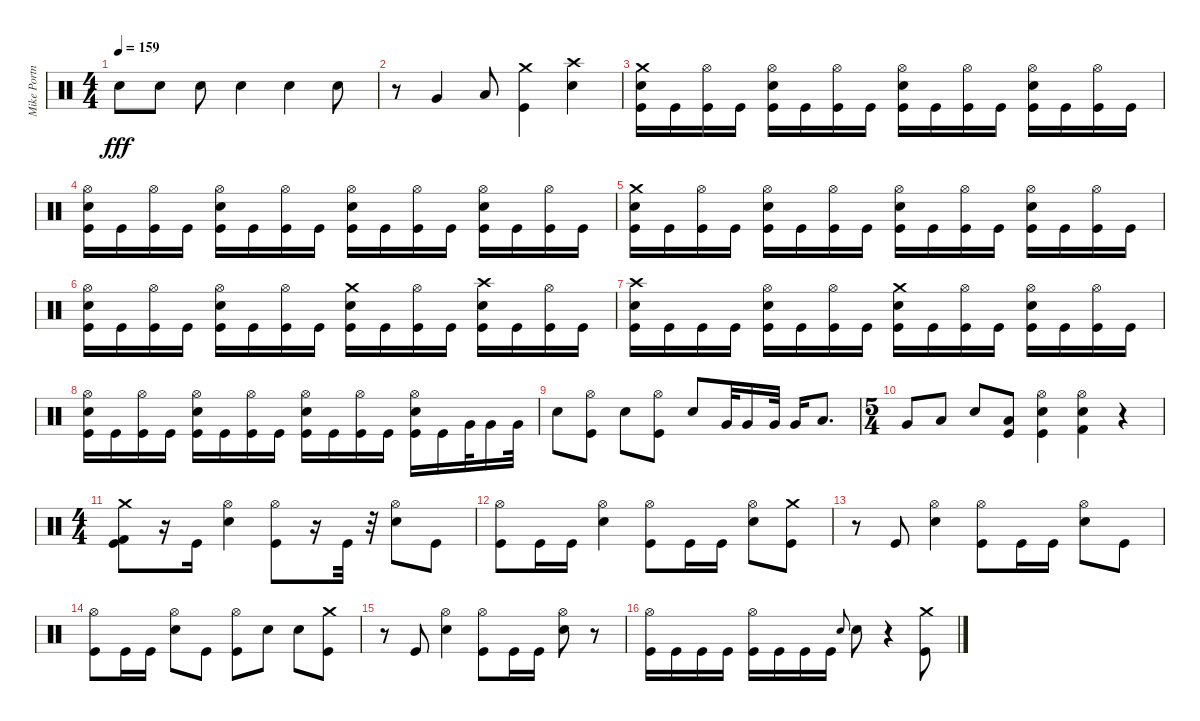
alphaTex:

\track ("Mike Portnoy" "Mike Portn") {instrument percussion}
\staff {score}
\articulation defaults
\ts (4 4)
\tempo 159
\clef neutral
\ks c "Electric Snare (hit)".8{dy fff} "Electric Snare (hit)".8 "Electric Snare (hit)".8 "Electric Snare (hit)".4 "Electric Snare (hit)".4 "Electric Snare (hit)".8
|
r.8 "Very Low Tom (hit)".4 "Low Floor Tom (hit)".8 ("Crash medium (hit)" "Kick (hit)").4 ("Crash high (hit)" "Electric Snare (hit)").4 |
("Crash medium (hit)" "Electric Snare (hit)" "Kick (hit)").16 "Kick (hit)".16 ("Hi-Hat (open)" "Kick (hit)").16 "Kick (hit)".16 ("Hi-Hat (open)" "Electric Snare (hit)" "Kick (hit)").16 "Kick (hit)".16 ("Hi-Hat (open)" "Kick (hit)").16 "Kick (hit)".16 ("Hi-Hat (open)" "Electric Snare (hit)" "Kick (hit)").16 "Kick (hit)".16 ("Hi-Hat (open)" "Kick (hit)").16 "Kick (hit)".16 ("Hi-Hat (open)" "Electric Snare (hit)" "Kick (hit)").16 "Kick (hit)".16 ("Hi-Hat (open)" "Kick (hit)").16 "Kick (hit)".16 |
("Hi-Hat (open)" "Electric Snare (hit)" "Kick (hit)").16 "Kick (hit)".16 ("Hi-Hat (open)" "Kick (hit)").16 "Kick (hit)".16 ("Hi-Hat (open)" "Electric Snare (hit)" "Kick (hit)").16 "Kick (hit)".16 ("Hi-Hat (open)" "Kick (hit)").16 "Kick (hit)".16 ("Hi-Hat (open)" "Electric Snare (hit)" "Kick (hit)").16 "Kick (hit)".16 ("Hi-Hat (open)" "Kick (hit)").16 "Kick (hit)".16 ("Hi-Hat (open)" "Electric Snare (hit)" "Kick (hit)").16 "Kick (hit)".16 ("Hi-Hat (open)" "Kick (hit)").16 "Kick (hit)".16 |
("Crash medium (hit)" "Electric Snare (hit)" "Kick (hit)").16 "Kick (hit)".16 ("Hi-Hat (open)" "Kick (hit)").16 "Kick (hit)".16 ("Hi-Hat (open)" "Electric Snare (hit)" "Kick (hit)").16 "Kick (hit)".16 ("Hi-Hat (open)" "Kick (hit)").16 "Kick (hit)".16 ("Hi-Hat (open)" "Electric Snare (hit)" "Kick (hit)").16 "Kick (hit)".16 ("Hi-Hat (open)" "Kick (hit)").16 "Kick (hit)".16 ("Hi-Hat (open)" "Electric Snare (hit)" "Kick (hit)").16 "Kick (hit)".16 ("Hi-Hat (open)" "Kick (hit)").16 "Kick (hit)".16 |
("Hi-Hat (open)" "Electric Snare (hit)" "Kick (hit)").16 "Kick (hit)".16 ("Hi-Hat (open)" "Kick (hit)").16 "Kick (hit)".16 ("Hi-Hat (open)" "Electric Snare (hit)" "Kick (hit)").16 "Kick (hit)".16 ("Hi-Hat (open)" "Kick (hit)").16 "Kick (hit)".16 ("Crash medium (hit)" "Electric Snare (hit)" "Kick (hit)").16 "Kick (hit)".16 ("Hi-Hat (open)" "Kick (hit)").16 "Kick (hit)".16 ("Crash high (hit)" "Electric Snare (hit)" "Kick (hit)").16 "Kick (hit)".16 ("Hi-Hat (open)" "Kick (hit)").16 "Kick (hit)".16 |
("Crash high (hit)" "Electric Snare (hit)" "Kick (hit)").16 "Kick (hit)".16 "Kick (hit)".16 "Kick (hit)".16 ("Hi-Hat (open)" "Electric Snare (hit)" "Kick (hit)").16 "Kick (hit)".16 ("Hi-Hat (open)" "Kick (hit)").16 "Kick (hit)".16 ("Crash medium (hit)" "Electric Snare (hit)" "Kick (hit)").16 "Kick (hit)".16 ("Hi-Hat (open)" "Kick (hit)").16 "Kick (hit)".16 ("Hi-Hat (open)" "Electric Snare (hit)" "Kick (hit)").16 "Kick (hit)".16 ("Hi-Hat (open)" "Kick (hit)").16 "Kick (hit)".16 |
("Hi-Hat (open)" "Electric Snare (hit)" "Kick (hit)").16 "Kick (hit)".16 ("Hi-Hat (open)" "Kick (hit)").16 "Kick (hit)".16 ("Hi-Hat (open)" "Electric Snare (hit)" "Kick (hit)").16 "Kick (hit)".16 ("Hi-Hat (open)" "Kick (hit)").16 "Kick (hit)".16 ("Hi-Hat (open)" "Electric Snare (hit)" "Kick (hit)").16 "Kick (hit)".16 ("Hi-Hat (open)" "Kick (hit)").16 "Kick (hit)".16 ("Hi-Hat (open)" "Electric Snare (hit)" "Kick (hit)").16 "Kick (hit)".16 "Very Low Tom (hit)".32 "Very Low Tom (hit)".16 "Very Low Tom (hit)".32 |
"Electric Snare (hit)".8 ("Hi-Hat (open)" "Kick (hit)").8 "Electric Snare (hit)".8 ("Hi-Hat (open)" "Kick (hit)").8 "Electric Snare (hit)".8 "Very Low Tom (hit)".32 "Very Low Tom (hit)".16 "Very Low Tom (hit)".32 "Very Low Tom (hit)".16 "Low Floor Tom (hit)".8{d} |
\ts (5 4)
"Very Low Tom (hit)".8 "Low Floor Tom (hit)".8 "Electric Snare (hit)".8 ("Low Floor Tom (hit)" "Kick (hit)").8 ("Hi-Hat (open)" "Electric Snare (hit)" "Kick (hit)").4 ("Snare (hit) 2" "Kick (hit) 2" "Hi-Hat (open)").4 r.4 |
\ts (4 4)
("Kick (hit) 2" "Crash medium (hit)" "Kick (hit)").8 r.16 "Kick (hit)".16 ("Hi-Hat (open)" "Electric Snare (hit)").4 ("Hi-Hat (open)" "Kick (hit)").8 r.16 "Kick (hit)".32 r.32 ("Hi-Hat (open)" "Electric Snare (hit)").8 "Kick (hit)".8 |
("Hi-Hat (open)" "Kick (hit)").8 "Kick (hit)".16 "Kick (hit)".16 ("Hi-Hat (open)" "Electric Snare (hit)").4 ("Hi-Hat (open)" "Kick (hit)").8 "Kick (hit)".16 "Kick (hit)".16 ("Hi-Hat (open)" "Electric Snare (hit)").8 ("Crash medium (hit)" "Kick (hit)").8 |
r.8 "Kick (hit)".8 ("Hi-Hat (open)" "Electric Snare (hit)").4 ("Hi-Hat (open)" "Kick (hit)").8 "Kick (hit)".16 "Kick (hit)".16 ("Hi-Hat (open)" "Electric Snare (hit)").8 "Kick (hit)".8 |
("Hi-Hat (open)" "Kick (hit)").8 "Kick (hit)".16 "Kick (hit)".16 ("Hi-Hat (open)" "Electric Snare (hit)").8 "Kick (hit)".8 ("Hi-Hat (open)" "Kick (hit)").8 "Electric Snare (hit)".8 "Electric Snare (hit)".8 ("Crash medium (hit)" "Kick (hit)").8 |
r.8 "Kick (hit)".8 ("Hi-Hat (open)" "Electric Snare (hit)").4 ("Hi-Hat (open)" "Kick (hit)").8 "Kick (hit)".16 "Kick (hit)".16 ("Hi-Hat (open)" "Electric Snare (hit)").8 r.8 |
("Hi-Hat (open)" "Kick (hit)").16 "Kick (hit)".16 "Kick (hit)".16 "Kick (hit)".16 ("Hi-Hat (open)" "Kick (hit)").16 "Kick (hit)".16 "Kick (hit)".16 "Kick (hit)".16 "Electric Snare (hit)".8{gr onbeat} "Electric Snare (hit)".8 r.4 ("Crash medium (hit)" "Kick (hit)").8
